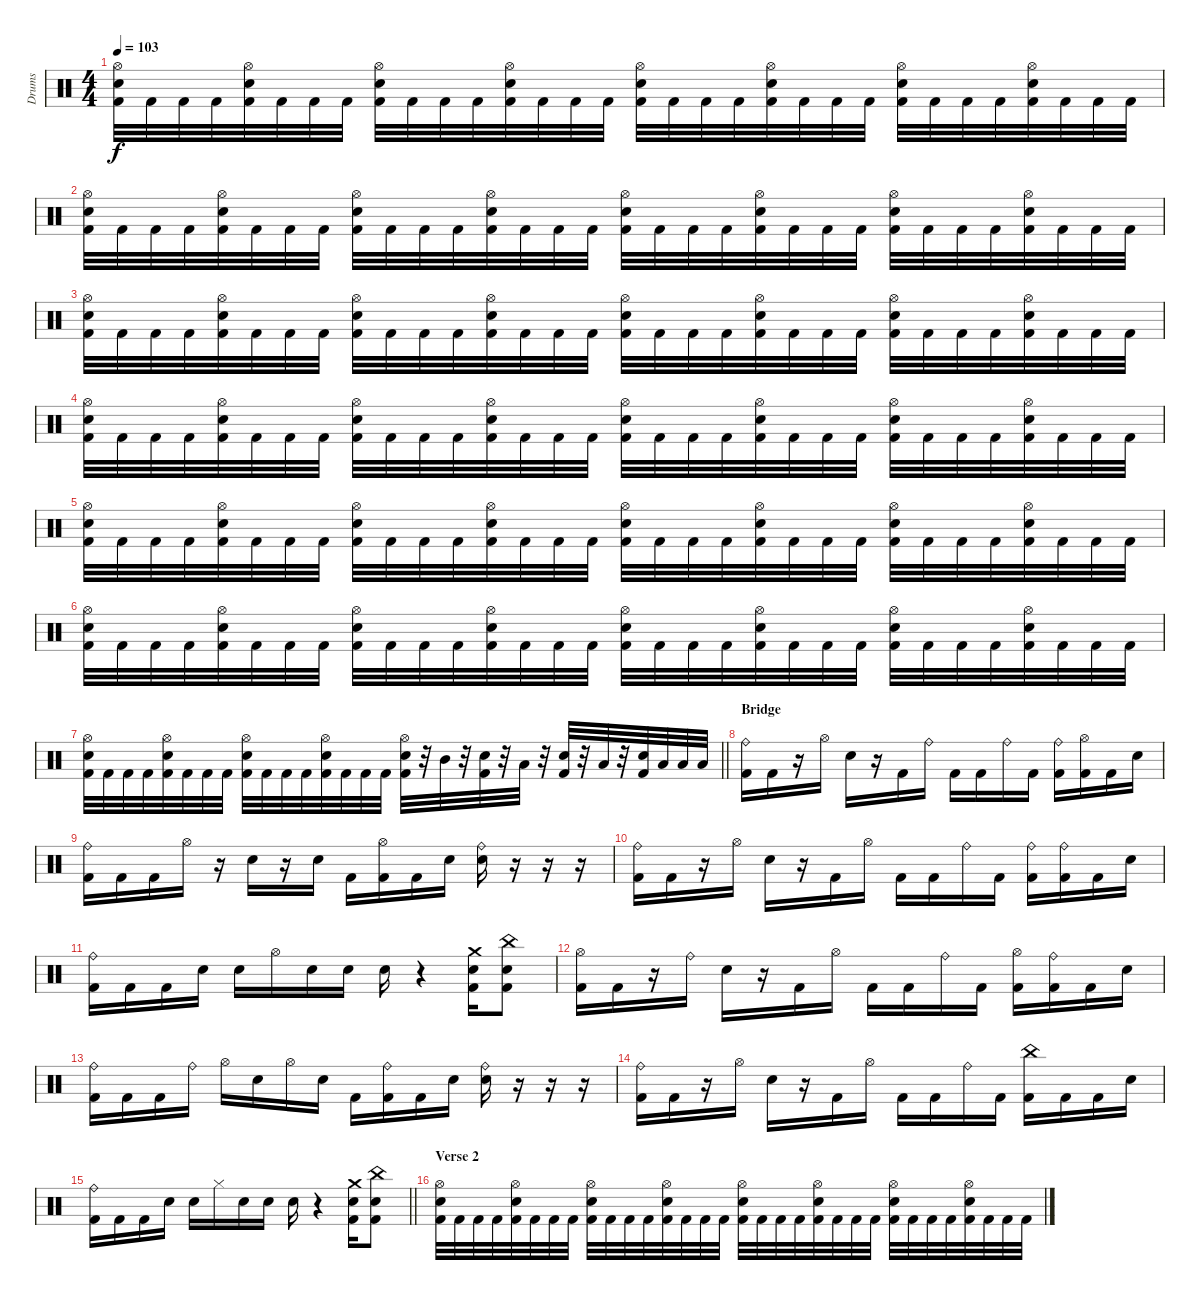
\track ("Drums" "Drums") {instrument percussion}
\staff {score}
\articulation defaults
\ts (4 4)
\tempo 103
\clef neutral
\ks c
("Hi-Hat (open)" "Electric Snare (hit)" "Kick (hit) 2").32{dy f} "Kick (hit) 2".32 "Kick (hit) 2".32 "Kick (hit) 2".32 ("Hi-Hat (open)" "Electric Snare (hit)" "Kick (hit) 2").32 "Kick (hit) 2".32 "Kick (hit) 2".32 "Kick (hit) 2".32 ("Hi-Hat (open)" "Electric Snare (hit)" "Kick (hit) 2").32 "Kick (hit) 2".32 "Kick (hit) 2".32 "Kick (hit) 2".32 ("Hi-Hat (open)" "Electric Snare (hit)" "Kick (hit) 2").32 "Kick (hit) 2".32 "Kick (hit) 2".32 "Kick (hit) 2".32 ("Hi-Hat (open)" "Electric Snare (hit)" "Kick (hit) 2").32 "Kick (hit) 2".32 "Kick (hit) 2".32 "Kick (hit) 2".32 ("Hi-Hat (open)" "Electric Snare (hit)" "Kick (hit) 2").32 "Kick (hit) 2".32 "Kick (hit) 2".32 "Kick (hit) 2".32 ("Hi-Hat (open)" "Electric Snare (hit)" "Kick (hit) 2").32 "Kick (hit) 2".32 "Kick (hit) 2".32 "Kick (hit) 2".32 ("Hi-Hat (open)" "Electric Snare (hit)" "Kick (hit) 2").32 "Kick (hit) 2".32 "Kick (hit) 2".32 "Kick (hit) 2".32 |
("Hi-Hat (open)" "Electric Snare (hit)" "Kick (hit) 2").32 "Kick (hit) 2".32 "Kick (hit) 2".32 "Kick (hit) 2".32 ("Hi-Hat (open)" "Electric Snare (hit)" "Kick (hit) 2").32 "Kick (hit) 2".32 "Kick (hit) 2".32 "Kick (hit) 2".32 ("Hi-Hat (open)" "Electric Snare (hit)" "Kick (hit) 2").32 "Kick (hit) 2".32 "Kick (hit) 2".32 "Kick (hit) 2".32 ("Hi-Hat (open)" "Electric Snare (hit)" "Kick (hit) 2").32 "Kick (hit) 2".32 "Kick (hit) 2".32 "Kick (hit) 2".32 ("Hi-Hat (open)" "Electric Snare (hit)" "Kick (hit) 2").32 "Kick (hit) 2".32 "Kick (hit) 2".32 "Kick (hit) 2".32 ("Hi-Hat (open)" "Electric Snare (hit)" "Kick (hit) 2").32 "Kick (hit) 2".32 "Kick (hit) 2".32 "Kick (hit) 2".32 ("Hi-Hat (open)" "Electric Snare (hit)" "Kick (hit) 2").32 "Kick (hit) 2".32 "Kick (hit) 2".32 "Kick (hit) 2".32 ("Hi-Hat (open)" "Electric Snare (hit)" "Kick (hit) 2").32 "Kick (hit) 2".32 "Kick (hit) 2".32 "Kick (hit) 2".32 |
("Hi-Hat (open)" "Electric Snare (hit)" "Kick (hit) 2").32 "Kick (hit) 2".32 "Kick (hit) 2".32 "Kick (hit) 2".32 ("Hi-Hat (open)" "Electric Snare (hit)" "Kick (hit) 2").32 "Kick (hit) 2".32 "Kick (hit) 2".32 "Kick (hit) 2".32 ("Hi-Hat (open)" "Electric Snare (hit)" "Kick (hit) 2").32 "Kick (hit) 2".32 "Kick (hit) 2".32 "Kick (hit) 2".32 ("Hi-Hat (open)" "Electric Snare (hit)" "Kick (hit) 2").32 "Kick (hit) 2".32 "Kick (hit) 2".32 "Kick (hit) 2".32 ("Hi-Hat (open)" "Electric Snare (hit)" "Kick (hit) 2").32 "Kick (hit) 2".32 "Kick (hit) 2".32 "Kick (hit) 2".32 ("Hi-Hat (open)" "Electric Snare (hit)" "Kick (hit) 2").32 "Kick (hit) 2".32 "Kick (hit) 2".32 "Kick (hit) 2".32 ("Hi-Hat (open)" "Electric Snare (hit)" "Kick (hit) 2").32 "Kick (hit) 2".32 "Kick (hit) 2".32 "Kick (hit) 2".32 ("Hi-Hat (open)" "Electric Snare (hit)" "Kick (hit) 2").32 "Kick (hit) 2".32 "Kick (hit) 2".32 "Kick (hit) 2".32 |
("Hi-Hat (open)" "Electric Snare (hit)" "Kick (hit) 2").32 "Kick (hit) 2".32 "Kick (hit) 2".32 "Kick (hit) 2".32 ("Hi-Hat (open)" "Electric Snare (hit)" "Kick (hit) 2").32 "Kick (hit) 2".32 "Kick (hit) 2".32 "Kick (hit) 2".32 ("Hi-Hat (open)" "Electric Snare (hit)" "Kick (hit) 2").32 "Kick (hit) 2".32 "Kick (hit) 2".32 "Kick (hit) 2".32 ("Hi-Hat (open)" "Electric Snare (hit)" "Kick (hit) 2").32 "Kick (hit) 2".32 "Kick (hit) 2".32 "Kick (hit) 2".32 ("Hi-Hat (open)" "Electric Snare (hit)" "Kick (hit) 2").32 "Kick (hit) 2".32 "Kick (hit) 2".32 "Kick (hit) 2".32 ("Hi-Hat (open)" "Electric Snare (hit)" "Kick (hit) 2").32 "Kick (hit) 2".32 "Kick (hit) 2".32 "Kick (hit) 2".32 ("Hi-Hat (open)" "Electric Snare (hit)" "Kick (hit) 2").32 "Kick (hit) 2".32 "Kick (hit) 2".32 "Kick (hit) 2".32 ("Hi-Hat (open)" "Electric Snare (hit)" "Kick (hit) 2").32 "Kick (hit) 2".32 "Kick (hit) 2".32 "Kick (hit) 2".32 |
("Hi-Hat (open)" "Electric Snare (hit)" "Kick (hit) 2").32 "Kick (hit) 2".32 "Kick (hit) 2".32 "Kick (hit) 2".32 ("Hi-Hat (open)" "Electric Snare (hit)" "Kick (hit) 2").32 "Kick (hit) 2".32 "Kick (hit) 2".32 "Kick (hit) 2".32 ("Hi-Hat (open)" "Electric Snare (hit)" "Kick (hit) 2").32 "Kick (hit) 2".32 "Kick (hit) 2".32 "Kick (hit) 2".32 ("Hi-Hat (open)" "Electric Snare (hit)" "Kick (hit) 2").32 "Kick (hit) 2".32 "Kick (hit) 2".32 "Kick (hit) 2".32 ("Hi-Hat (open)" "Electric Snare (hit)" "Kick (hit) 2").32 "Kick (hit) 2".32 "Kick (hit) 2".32 "Kick (hit) 2".32 ("Hi-Hat (open)" "Electric Snare (hit)" "Kick (hit) 2").32 "Kick (hit) 2".32 "Kick (hit) 2".32 "Kick (hit) 2".32 ("Hi-Hat (open)" "Electric Snare (hit)" "Kick (hit) 2").32 "Kick (hit) 2".32 "Kick (hit) 2".32 "Kick (hit) 2".32 ("Hi-Hat (open)" "Electric Snare (hit)" "Kick (hit) 2").32 "Kick (hit) 2".32 "Kick (hit) 2".32 "Kick (hit) 2".32 |
("Hi-Hat (open)" "Electric Snare (hit)" "Kick (hit) 2").32 "Kick (hit) 2".32 "Kick (hit) 2".32 "Kick (hit) 2".32 ("Hi-Hat (open)" "Electric Snare (hit)" "Kick (hit) 2").32 "Kick (hit) 2".32 "Kick (hit) 2".32 "Kick (hit) 2".32 ("Hi-Hat (open)" "Electric Snare (hit)" "Kick (hit) 2").32 "Kick (hit) 2".32 "Kick (hit) 2".32 "Kick (hit) 2".32 ("Hi-Hat (open)" "Electric Snare (hit)" "Kick (hit) 2").32 "Kick (hit) 2".32 "Kick (hit) 2".32 "Kick (hit) 2".32 ("Hi-Hat (open)" "Electric Snare (hit)" "Kick (hit) 2").32 "Kick (hit) 2".32 "Kick (hit) 2".32 "Kick (hit) 2".32 ("Hi-Hat (open)" "Electric Snare (hit)" "Kick (hit) 2").32 "Kick (hit) 2".32 "Kick (hit) 2".32 "Kick (hit) 2".32 ("Hi-Hat (open)" "Electric Snare (hit)" "Kick (hit) 2").32 "Kick (hit) 2".32 "Kick (hit) 2".32 "Kick (hit) 2".32 ("Hi-Hat (open)" "Electric Snare (hit)" "Kick (hit) 2").32 "Kick (hit) 2".32 "Kick (hit) 2".32 "Kick (hit) 2".32 |
\barLineRight lightlight
("Hi-Hat (open)" "Electric Snare (hit)" "Kick (hit) 2").32 "Kick (hit) 2".32 "Kick (hit) 2".32 "Kick (hit) 2".32 ("Hi-Hat (open)" "Electric Snare (hit)" "Kick (hit) 2").32 "Kick (hit) 2".32 "Kick (hit) 2".32 "Kick (hit) 2".32 ("Hi-Hat (open)" "Electric Snare (hit)" "Kick (hit) 2").32 "Kick (hit) 2".32 "Kick (hit) 2".32 "Kick (hit) 2".32 ("Hi-Hat (open)" "Electric Snare (hit)" "Kick (hit) 2").32 "Kick (hit) 2".32 "Kick (hit) 2".32 "Kick (hit) 2".32 ("Hi-Hat (open)" "Electric Snare (hit)" "Kick (hit) 2").32 r.32 "Mid Tom (hit)".32 r.32 ("Electric Snare (hit)" "Kick (hit) 2").32 r.32 "Low Tom (hit)".32 r.32 ("Electric Snare (hit)" "Kick (hit) 2").32 r.32 "Low Floor Tom (hit)".32 r.32 ("Electric Snare (hit)" "Kick (hit) 2").32 "Low Floor Tom (hit)".32 "Low Floor Tom (hit)".32 "Low Floor Tom (hit)".32 |
\section ("" "Bridge")
("Ride (bell)" "Kick (hit) 2").16 "Kick (hit) 2".16 r.16 "Hi-Hat (open)".16 "Electric Snare (hit)".16 r.16 "Kick (hit) 2".16 "Ride (bell)".16 "Kick (hit) 2".16 "Kick (hit) 2".16 "Ride (bell)".16 "Kick (hit) 2".16 ("Ride (bell)" "Kick (hit) 2").16 ("Hi-Hat (open)" "Kick (hit) 2").16 "Kick (hit) 2".16 "Electric Snare (hit)".16 |
("Ride (bell)" "Kick (hit) 2").16 "Kick (hit) 2".16 "Kick (hit) 2".16 "Hi-Hat (open)".16 r.16 "Electric Snare (hit)".16 r.16 "Electric Snare (hit)".16 "Kick (hit) 2".16 ("Hi-Hat (open)" "Kick (hit) 2").16 "Kick (hit) 2".16 "Electric Snare (hit)".16 ("Ride (bell)" "Electric Snare (hit)").16 r.16 r.16 r.16 |
("Ride (bell)" "Kick (hit) 2").16 "Kick (hit) 2".16 r.16 "Hi-Hat (open)".16 "Electric Snare (hit)".16 r.16 "Kick (hit) 2".16 "Hi-Hat (open)".16 "Kick (hit) 2".16 "Kick (hit) 2".16 "Ride (bell)".16 "Kick (hit) 2".16 ("Ride (bell)" "Kick (hit) 2").16 ("Ride (bell)" "Kick (hit) 2").16 "Kick (hit) 2".16 "Electric Snare (hit)".16 |
("Ride (bell)" "Kick (hit) 2").16 "Kick (hit) 2".16 "Kick (hit) 2".16 "Electric Snare (hit)".16 "Electric Snare (hit)".16 "Hi-Hat (open)".16 "Electric Snare (hit)".16 "Electric Snare (hit)".16 "Electric Snare (hit)".16 r.4 ("Crash medium (hit)" "Electric Snare (hit)" "Kick (hit) 2").16 ("China (hit)" "Electric Snare (hit)" "Kick (hit) 2").8 |
("Hi-Hat (open)" "Kick (hit) 2").16 "Kick (hit) 2".16 r.16 "Ride (bell)".16 "Electric Snare (hit)".16 r.16 "Kick (hit) 2".16 "Hi-Hat (open)".16 "Kick (hit) 2".16 "Kick (hit) 2".16 "Ride (bell)".16 "Kick (hit) 2".16 ("Hi-Hat (open)" "Kick (hit) 2").16 ("Ride (bell)" "Kick (hit) 2").16 "Kick (hit) 2".16 "Electric Snare (hit)".16 |
("Ride (bell)" "Kick (hit) 2").16 "Kick (hit) 2".16 "Kick (hit) 2".16 "Ride (bell)".16 "Hi-Hat (open)".16 "Electric Snare (hit)".16 "Hi-Hat (open)".16 "Electric Snare (hit)".16 "Kick (hit) 2".16 ("Ride (bell)" "Kick (hit) 2").16 "Kick (hit) 2".16 "Electric Snare (hit)".16 ("Ride (bell)" "Electric Snare (hit)").16 r.16 r.16 r.16 |
("Ride (bell)" "Kick (hit) 2").16 "Kick (hit) 2".16 r.16 "Hi-Hat (open)".16 "Electric Snare (hit)".16 r.16 "Kick (hit) 2".16 "Hi-Hat (open)".16 "Kick (hit) 2".16 "Kick (hit) 2".16 "Ride (bell)".16 "Kick (hit) 2".16 ("China (hit)" "Kick (hit) 2").16 "Kick (hit) 2".16 "Kick (hit) 2".16 "Electric Snare (hit)".16 |
\barLineRight lightlight
("Ride (bell)" "Kick (hit) 2").16 "Kick (hit) 2".16 "Kick (hit) 2".16 "Electric Snare (hit)".16 "Electric Snare (hit)".16 "Hi-Hat (closed)".16 "Electric Snare (hit)".16 "Electric Snare (hit)".16 "Electric Snare (hit)".16 r.4 ("Crash medium (hit)" "Electric Snare (hit)" "Kick (hit) 2").16 ("China (hit)" "Electric Snare (hit)" "Kick (hit) 2").8 |
\section ("" "Verse 2")
("Hi-Hat (open)" "Electric Snare (hit)" "Kick (hit) 2").32 "Kick (hit) 2".32 "Kick (hit) 2".32 "Kick (hit) 2".32 ("Hi-Hat (open)" "Electric Snare (hit)" "Kick (hit) 2").32 "Kick (hit) 2".32 "Kick (hit) 2".32 "Kick (hit) 2".32 ("Hi-Hat (open)" "Electric Snare (hit)" "Kick (hit) 2").32 "Kick (hit) 2".32 "Kick (hit) 2".32 "Kick (hit) 2".32 ("Hi-Hat (open)" "Electric Snare (hit)" "Kick (hit) 2").32 "Kick (hit) 2".32 "Kick (hit) 2".32 "Kick (hit) 2".32 ("Hi-Hat (open)" "Electric Snare (hit)" "Kick (hit) 2").32 "Kick (hit) 2".32 "Kick (hit) 2".32 "Kick (hit) 2".32 ("Hi-Hat (open)" "Electric Snare (hit)" "Kick (hit) 2").32 "Kick (hit) 2".32 "Kick (hit) 2".32 "Kick (hit) 2".32 ("Hi-Hat (open)" "Electric Snare (hit)" "Kick (hit) 2").32 "Kick (hit) 2".32 "Kick (hit) 2".32 "Kick (hit) 2".32 ("Hi-Hat (open)" "Electric Snare (hit)" "Kick (hit) 2").32 "Kick (hit) 2".32 "Kick (hit) 2".32 "Kick (hit) 2".32
